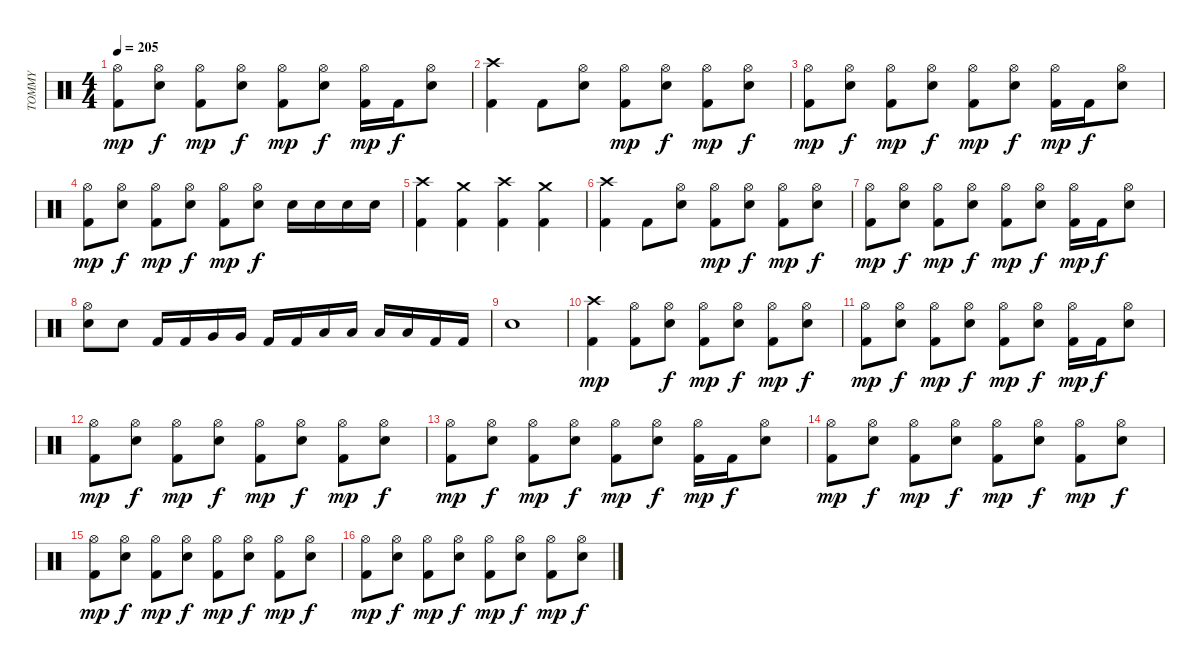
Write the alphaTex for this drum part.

\track ("TOMMY" "TOMMY") {instrument percussion}
\staff {score}
\articulation defaults
\ts (4 4)
\tempo 205
\clef neutral
\ks c
("Kick (hit) 2" "Hi-Hat (open)").8{dy mp} ("Snare (hit) 2" "Hi-Hat (open)").8{dy f} ("Kick (hit) 2" "Hi-Hat (open)").8{dy mp} ("Snare (hit) 2" "Hi-Hat (open)").8{dy f} ("Kick (hit) 2" "Hi-Hat (open)").8{dy mp} ("Snare (hit) 2" "Hi-Hat (open)").8{dy f} ("Kick (hit) 2" "Hi-Hat (open)").16{dy mp} "Kick (hit) 2".16{dy f} ("Snare (hit) 2" "Hi-Hat (open)").8 |
("Kick (hit) 2" "Crash high (hit)").4 "Kick (hit) 2".8 ("Snare (hit) 2" "Hi-Hat (open)").8 ("Kick (hit) 2" "Hi-Hat (open)").8{dy mp} ("Snare (hit) 2" "Hi-Hat (open)").8{dy f} ("Kick (hit) 2" "Hi-Hat (open)").8{dy mp} ("Snare (hit) 2" "Hi-Hat (open)").8{dy f} |
("Kick (hit) 2" "Hi-Hat (open)").8{dy mp} ("Snare (hit) 2" "Hi-Hat (open)").8{dy f} ("Kick (hit) 2" "Hi-Hat (open)").8{dy mp} ("Snare (hit) 2" "Hi-Hat (open)").8{dy f} ("Kick (hit) 2" "Hi-Hat (open)").8{dy mp} ("Snare (hit) 2" "Hi-Hat (open)").8{dy f} ("Kick (hit) 2" "Hi-Hat (open)").16{dy mp} "Kick (hit) 2".16{dy f} ("Snare (hit) 2" "Hi-Hat (open)").8 |
("Kick (hit) 2" "Hi-Hat (open)").8{dy mp} ("Snare (hit) 2" "Hi-Hat (open)").8{dy f} ("Kick (hit) 2" "Hi-Hat (open)").8{dy mp} ("Snare (hit) 2" "Hi-Hat (open)").8{dy f} ("Kick (hit) 2" "Hi-Hat (open)").8{dy mp} ("Snare (hit) 2" "Hi-Hat (open)").8{dy f} "Snare (hit) 2".16 "Snare (hit) 2".16 "Snare (hit) 2".16 "Snare (hit) 2".16 |
("Kick (hit) 2" "Crash high (hit)").4 ("Kick (hit) 2" "Crash medium (hit)").4 ("Kick (hit) 2" "Crash high (hit)").4 ("Kick (hit) 2" "Crash medium (hit)").4 |
("Kick (hit) 2" "Crash high (hit)").4 "Kick (hit) 2".8 ("Snare (hit) 2" "Hi-Hat (open)").8 ("Kick (hit) 2" "Hi-Hat (open)").8{dy mp} ("Snare (hit) 2" "Hi-Hat (open)").8{dy f} ("Kick (hit) 2" "Hi-Hat (open)").8{dy mp} ("Snare (hit) 2" "Hi-Hat (open)").8{dy f} |
("Kick (hit) 2" "Hi-Hat (open)").8{dy mp} ("Snare (hit) 2" "Hi-Hat (open)").8{dy f} ("Kick (hit) 2" "Hi-Hat (open)").8{dy mp} ("Snare (hit) 2" "Hi-Hat (open)").8{dy f} ("Kick (hit) 2" "Hi-Hat (open)").8{dy mp} ("Snare (hit) 2" "Hi-Hat (open)").8{dy f} ("Kick (hit) 2" "Hi-Hat (open)").16{dy mp} "Kick (hit) 2".16{dy f} ("Snare (hit) 2" "Hi-Hat (open)").8 |
("Snare (hit) 2" "Hi-Hat (open)").8 "Snare (hit) 2".8 "Kick (hit) 2".16 "Kick (hit) 2".16 "Very Low Tom (hit)".16 "Very Low Tom (hit)".16 "Kick (hit) 2".16 "Kick (hit) 2".16 "Low Floor Tom (hit)".16 "Low Floor Tom (hit)".16 "Low Floor Tom (hit)".16 "Low Floor Tom (hit)".16 "Kick (hit) 2".16 "Kick (hit) 2".16 |
"Snare (hit) 2".1 |
("Kick (hit) 2" "Crash high (hit)").4{dy mp} ("Kick (hit) 2" "Hi-Hat (open)").8 ("Snare (hit) 2" "Hi-Hat (open)").8{dy f} ("Kick (hit) 2" "Hi-Hat (open)").8{dy mp} ("Snare (hit) 2" "Hi-Hat (open)").8{dy f} ("Kick (hit) 2" "Hi-Hat (open)").8{dy mp} ("Snare (hit) 2" "Hi-Hat (open)").8{dy f} |
("Kick (hit) 2" "Hi-Hat (open)").8{dy mp} ("Snare (hit) 2" "Hi-Hat (open)").8{dy f} ("Kick (hit) 2" "Hi-Hat (open)").8{dy mp} ("Snare (hit) 2" "Hi-Hat (open)").8{dy f} ("Kick (hit) 2" "Hi-Hat (open)").8{dy mp} ("Snare (hit) 2" "Hi-Hat (open)").8{dy f} ("Kick (hit) 2" "Hi-Hat (open)").16{dy mp} "Kick (hit) 2".16{dy f} ("Snare (hit) 2" "Hi-Hat (open)").8 |
("Kick (hit) 2" "Hi-Hat (open)").8{dy mp} ("Snare (hit) 2" "Hi-Hat (open)").8{dy f} ("Kick (hit) 2" "Hi-Hat (open)").8{dy mp} ("Snare (hit) 2" "Hi-Hat (open)").8{dy f} ("Kick (hit) 2" "Hi-Hat (open)").8{dy mp} ("Snare (hit) 2" "Hi-Hat (open)").8{dy f} ("Kick (hit) 2" "Hi-Hat (open)").8{dy mp} ("Snare (hit) 2" "Hi-Hat (open)").8{dy f} |
("Kick (hit) 2" "Hi-Hat (open)").8{dy mp} ("Snare (hit) 2" "Hi-Hat (open)").8{dy f} ("Kick (hit) 2" "Hi-Hat (open)").8{dy mp} ("Snare (hit) 2" "Hi-Hat (open)").8{dy f} ("Kick (hit) 2" "Hi-Hat (open)").8{dy mp} ("Snare (hit) 2" "Hi-Hat (open)").8{dy f} ("Kick (hit) 2" "Hi-Hat (open)").16{dy mp} "Kick (hit) 2".16{dy f} ("Snare (hit) 2" "Hi-Hat (open)").8 |
("Kick (hit) 2" "Hi-Hat (open)").8{dy mp} ("Snare (hit) 2" "Hi-Hat (open)").8{dy f} ("Kick (hit) 2" "Hi-Hat (open)").8{dy mp} ("Snare (hit) 2" "Hi-Hat (open)").8{dy f} ("Kick (hit) 2" "Hi-Hat (open)").8{dy mp} ("Snare (hit) 2" "Hi-Hat (open)").8{dy f} ("Kick (hit) 2" "Hi-Hat (open)").8{dy mp} ("Snare (hit) 2" "Hi-Hat (open)").8{dy f} |
("Kick (hit) 2" "Hi-Hat (open)").8{dy mp} ("Snare (hit) 2" "Hi-Hat (open)").8{dy f} ("Kick (hit) 2" "Hi-Hat (open)").8{dy mp} ("Snare (hit) 2" "Hi-Hat (open)").8{dy f} ("Kick (hit) 2" "Hi-Hat (open)").8{dy mp} ("Snare (hit) 2" "Hi-Hat (open)").8{dy f} ("Kick (hit) 2" "Hi-Hat (open)").8{dy mp} ("Snare (hit) 2" "Hi-Hat (open)").8{dy f} |
("Kick (hit) 2" "Hi-Hat (open)").8{dy mp} ("Snare (hit) 2" "Hi-Hat (open)").8{dy f} ("Kick (hit) 2" "Hi-Hat (open)").8{dy mp} ("Snare (hit) 2" "Hi-Hat (open)").8{dy f} ("Kick (hit) 2" "Hi-Hat (open)").8{dy mp} ("Snare (hit) 2" "Hi-Hat (open)").8{dy f} ("Kick (hit) 2" "Hi-Hat (open)").8{dy mp} ("Snare (hit) 2" "Hi-Hat (open)").8{dy f}
